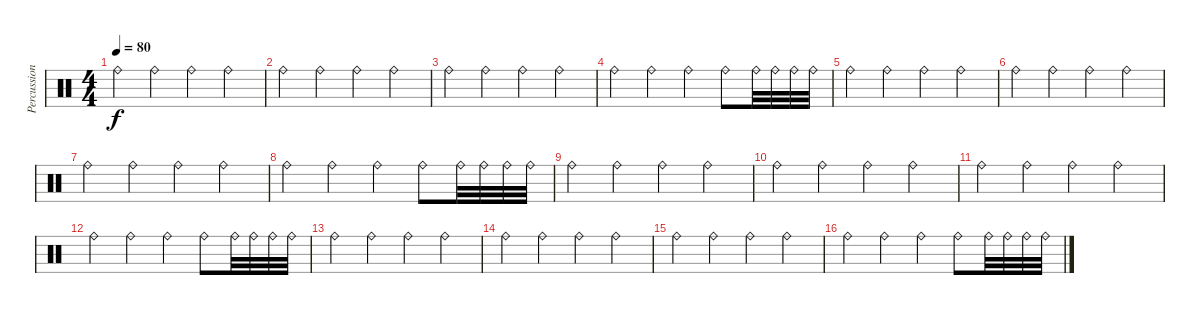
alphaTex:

\track ("Percussion" "Percussion") {instrument percussion}
\staff {score}
\articulation defaults
\ts (4 4)
\tempo 80
\clef neutral
\ks c "Ride (bell)".4{dy f} "Ride (bell)".4 "Ride (bell)".4 "Ride (bell)".4
|
"Ride (bell)".4 "Ride (bell)".4 "Ride (bell)".4 "Ride (bell)".4 |
"Ride (bell)".4 "Ride (bell)".4 "Ride (bell)".4 "Ride (bell)".4 |
"Ride (bell)".4 "Ride (bell)".4 "Ride (bell)".4 "Ride (bell)".8 "Ride (bell)".32 "Ride (bell)".32 "Ride (bell)".32 "Ride (bell)".32 |
"Ride (bell)".4 "Ride (bell)".4 "Ride (bell)".4 "Ride (bell)".4 |
"Ride (bell)".4 "Ride (bell)".4 "Ride (bell)".4 "Ride (bell)".4 |
"Ride (bell)".4 "Ride (bell)".4 "Ride (bell)".4 "Ride (bell)".4 |
"Ride (bell)".4 "Ride (bell)".4 "Ride (bell)".4 "Ride (bell)".8 "Ride (bell)".32 "Ride (bell)".32 "Ride (bell)".32 "Ride (bell)".32 |
"Ride (bell)".4 "Ride (bell)".4 "Ride (bell)".4 "Ride (bell)".4 |
"Ride (bell)".4 "Ride (bell)".4 "Ride (bell)".4 "Ride (bell)".4 |
"Ride (bell)".4 "Ride (bell)".4 "Ride (bell)".4 "Ride (bell)".4 |
"Ride (bell)".4 "Ride (bell)".4 "Ride (bell)".4 "Ride (bell)".8 "Ride (bell)".32 "Ride (bell)".32 "Ride (bell)".32 "Ride (bell)".32 |
"Ride (bell)".4 "Ride (bell)".4 "Ride (bell)".4 "Ride (bell)".4 |
"Ride (bell)".4 "Ride (bell)".4 "Ride (bell)".4 "Ride (bell)".4 |
"Ride (bell)".4 "Ride (bell)".4 "Ride (bell)".4 "Ride (bell)".4 |
"Ride (bell)".4 "Ride (bell)".4 "Ride (bell)".4 "Ride (bell)".8 "Ride (bell)".32 "Ride (bell)".32 "Ride (bell)".32 "Ride (bell)".32
